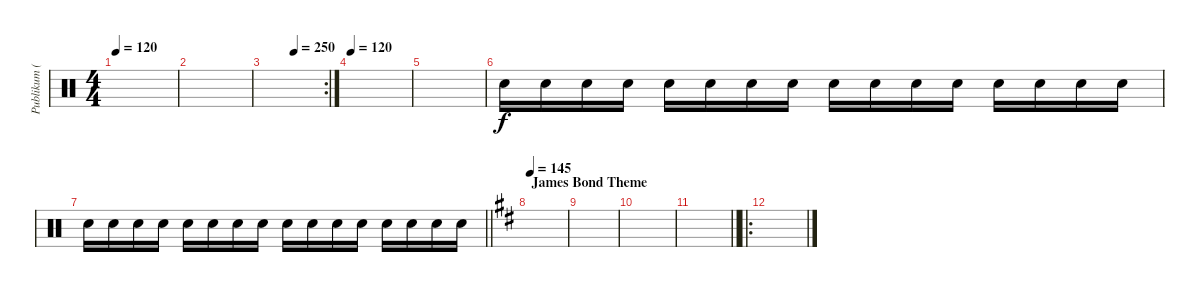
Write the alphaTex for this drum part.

\track ("Publikum (klapper)" "Publikum (") {instrument percussion}
\staff {score}
\articulation defaults
\ts (4 4)
\tempo 120
\clef neutral
\ks c
|
|
\rc 2
\tempo (250 0.5)
|
\tempo 120
|
|
"Hand Clap (hit)".16 "Hand Clap (hit)".16 "Hand Clap (hit)".16 "Hand Clap (hit)".16 "Hand Clap (hit)".16 "Hand Clap (hit)".16 "Hand Clap (hit)".16 "Hand Clap (hit)".16 "Hand Clap (hit)".16 "Hand Clap (hit)".16 "Hand Clap (hit)".16 "Hand Clap (hit)".16 "Hand Clap (hit)".16 "Hand Clap (hit)".16 "Hand Clap (hit)".16 "Hand Clap (hit)".16 |
\barLineRight lightlight "Hand Clap (hit)".16 "Hand Clap (hit)".16 "Hand Clap (hit)".16 "Hand Clap (hit)".16 "Hand Clap (hit)".16 "Hand Clap (hit)".16 "Hand Clap (hit)".16 "Hand Clap (hit)".16 "Hand Clap (hit)".16 "Hand Clap (hit)".16 "Hand Clap (hit)".16 "Hand Clap (hit)".16 "Hand Clap (hit)".16 "Hand Clap (hit)".16 "Hand Clap (hit)".16 "Hand Clap (hit)".16
|
\section ("" "James Bond Theme")
\tempo 145
\ks d
|
|
|
\barLineRight lightlight
|
\ro
